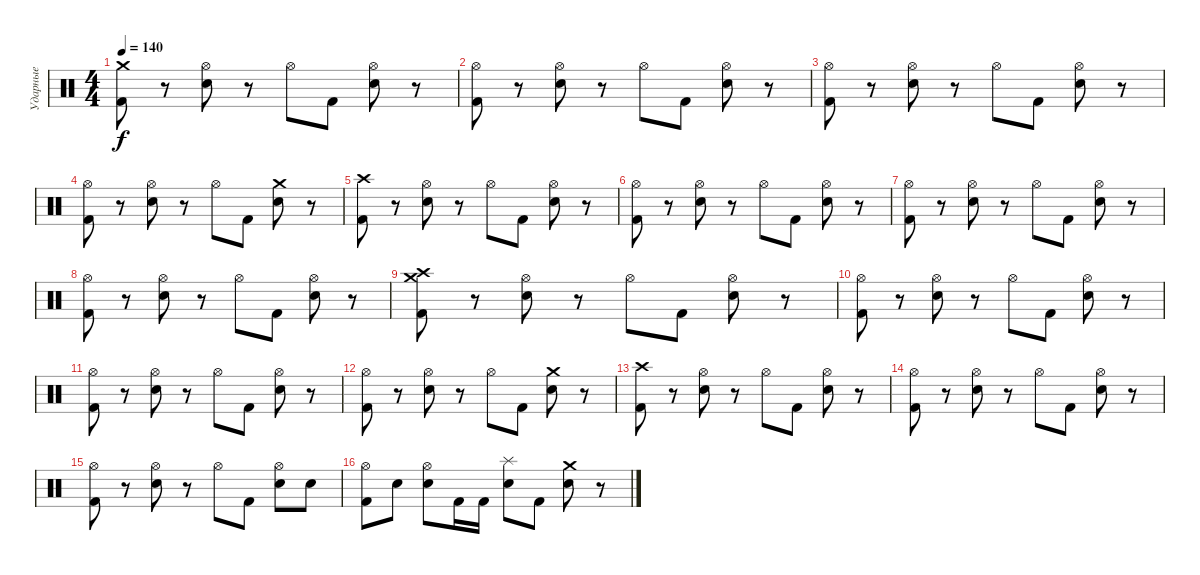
\track ("Ударные" "Ударные") {instrument percussion}
\staff {score}
\articulation defaults
\ts (4 4)
\tempo 140
\clef neutral
\ks c
("Crash medium (hit)" "Kick (hit) 2").8{dy f} r.8 ("Hi-Hat (open)" "Electric Snare (hit)").8 r.8 "Hi-Hat (open)".8 "Kick (hit) 2".8 ("Hi-Hat (open)" "Electric Snare (hit)").8 r.8 |
("Hi-Hat (open)" "Kick (hit) 2").8 r.8 ("Hi-Hat (open)" "Electric Snare (hit)").8 r.8 "Hi-Hat (open)".8 "Kick (hit) 2".8 ("Hi-Hat (open)" "Electric Snare (hit)").8 r.8 |
("Hi-Hat (open)" "Kick (hit) 2").8 r.8 ("Hi-Hat (open)" "Electric Snare (hit)").8 r.8 "Hi-Hat (open)".8 "Kick (hit) 2".8 ("Hi-Hat (open)" "Electric Snare (hit)").8 r.8 |
("Hi-Hat (open)" "Kick (hit) 2").8 r.8 ("Hi-Hat (open)" "Electric Snare (hit)").8 r.8 "Hi-Hat (open)".8 "Kick (hit) 2".8 ("Crash medium (hit)" "Electric Snare (hit)").8 r.8 |
("Crash high (hit)" "Kick (hit) 2").8 r.8 ("Hi-Hat (open)" "Electric Snare (hit)").8 r.8 "Hi-Hat (open)".8 "Kick (hit) 2".8 ("Hi-Hat (open)" "Electric Snare (hit)").8 r.8 |
("Hi-Hat (open)" "Kick (hit) 2").8 r.8 ("Hi-Hat (open)" "Electric Snare (hit)").8 r.8 "Hi-Hat (open)".8 "Kick (hit) 2".8 ("Hi-Hat (open)" "Electric Snare (hit)").8 r.8 |
("Hi-Hat (open)" "Kick (hit) 2").8 r.8 ("Hi-Hat (open)" "Electric Snare (hit)").8 r.8 "Hi-Hat (open)".8 "Kick (hit) 2".8 ("Hi-Hat (open)" "Electric Snare (hit)").8 r.8 |
("Hi-Hat (open)" "Kick (hit) 2").8 r.8 ("Hi-Hat (open)" "Electric Snare (hit)").8 r.8 "Hi-Hat (open)".8 "Kick (hit) 2".8 ("Hi-Hat (open)" "Electric Snare (hit)").8 r.8 |
("Crash medium (hit)" "Crash high (hit)" "Kick (hit) 2").8 r.8 ("Hi-Hat (open)" "Electric Snare (hit)").8 r.8 "Hi-Hat (open)".8 "Kick (hit) 2".8 ("Hi-Hat (open)" "Electric Snare (hit)").8 r.8 |
("Hi-Hat (open)" "Kick (hit) 2").8 r.8 ("Hi-Hat (open)" "Electric Snare (hit)").8 r.8 "Hi-Hat (open)".8 "Kick (hit) 2".8 ("Hi-Hat (open)" "Electric Snare (hit)").8 r.8 |
("Hi-Hat (open)" "Kick (hit) 2").8 r.8 ("Hi-Hat (open)" "Electric Snare (hit)").8 r.8 "Hi-Hat (open)".8 "Kick (hit) 2".8 ("Hi-Hat (open)" "Electric Snare (hit)").8 r.8 |
("Hi-Hat (open)" "Kick (hit) 2").8 r.8 ("Hi-Hat (open)" "Electric Snare (hit)").8 r.8 "Hi-Hat (open)".8 "Kick (hit) 2".8 ("Crash medium (hit)" "Electric Snare (hit)").8 r.8 |
("Crash high (hit)" "Kick (hit) 2").8 r.8 ("Hi-Hat (open)" "Electric Snare (hit)").8 r.8 "Hi-Hat (open)".8 "Kick (hit) 2".8 ("Hi-Hat (open)" "Electric Snare (hit)").8 r.8 |
("Hi-Hat (open)" "Kick (hit) 2").8 r.8 ("Hi-Hat (open)" "Electric Snare (hit)").8 r.8 "Hi-Hat (open)".8 "Kick (hit) 2".8 ("Hi-Hat (open)" "Electric Snare (hit)").8 r.8 |
("Hi-Hat (open)" "Kick (hit) 2").8 r.8 ("Hi-Hat (open)" "Electric Snare (hit)").8 r.8 "Hi-Hat (open)".8 "Kick (hit) 2".8 ("Hi-Hat (open)" "Electric Snare (hit)").8 "Electric Snare (hit)".8 |
("Hi-Hat (open)" "Kick (hit) 2").8 "Electric Snare (hit)".8 ("Hi-Hat (open)" "Electric Snare (hit)").8 "Kick (hit) 2".16 "Kick (hit) 2".16 ("Splash (hit)" "Electric Snare (hit)").8 "Kick (hit) 2".8 ("Crash medium (hit)" "Electric Snare (hit)").8 r.8
